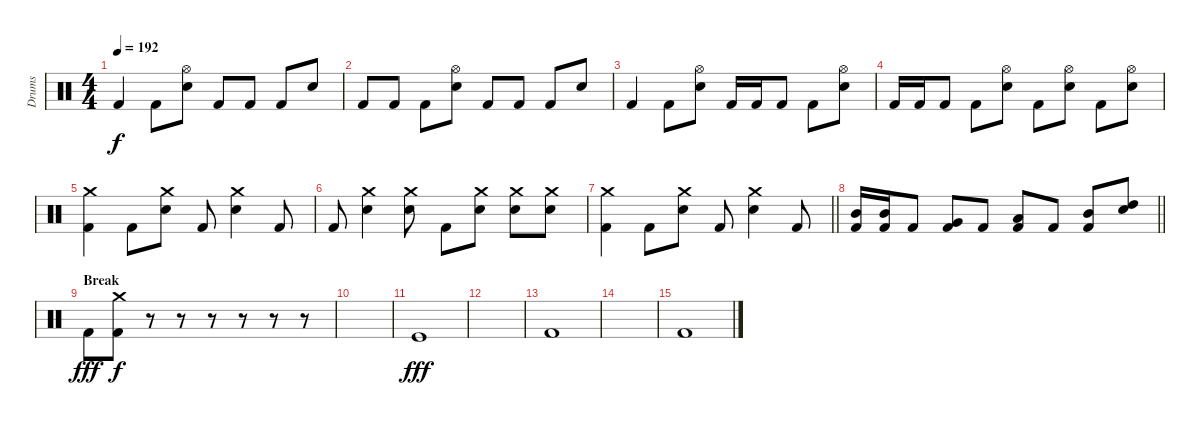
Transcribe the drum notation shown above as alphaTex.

\track ("Drums" "Drums") {instrument percussion}
\staff {score}
\articulation defaults
\ts (4 4)
\tempo 192
\clef neutral
\ks c "Kick (hit) 2".4{dy f} "Kick (hit) 2".8
("Electric Snare (hit)" "Hi-Hat (open)").8 "Kick (hit) 2".8 "Kick (hit) 2".8 "Kick (hit) 2".8 "Electric Snare (hit)".8 |
"Kick (hit) 2".8 "Kick (hit) 2".8 "Kick (hit) 2".8 ("Electric Snare (hit)" "Hi-Hat (open)").8 "Kick (hit) 2".8 "Kick (hit) 2".8 "Kick (hit) 2".8 "Electric Snare (hit)".8 |
"Kick (hit) 2".4 "Kick (hit) 2".8 ("Electric Snare (hit)" "Hi-Hat (open)").8 "Kick (hit) 2".16 "Kick (hit) 2".16 "Kick (hit) 2".8 "Kick (hit) 2".8 ("Electric Snare (hit)" "Hi-Hat (open)").8 |
"Kick (hit) 2".16 "Kick (hit) 2".16 "Kick (hit) 2".8 "Kick (hit) 2".8 ("Hi-Hat (open)" "Electric Snare (hit)").8 "Kick (hit) 2".8 ("Hi-Hat (open)" "Electric Snare (hit)").8 "Kick (hit) 2".8 ("Hi-Hat (open)" "Electric Snare (hit)").8 |
("Kick (hit) 2" "Crash medium (hit)").4 "Kick (hit) 2".8 ("Electric Snare (hit)" "Crash medium (hit)").8 "Kick (hit) 2".8 ("Electric Snare (hit)" "Crash medium (hit)").4 "Kick (hit) 2".8 |
"Kick (hit) 2".8 ("Electric Snare (hit)" "Crash medium (hit)").4 ("Electric Snare (hit)" "Crash medium (hit)").8 "Kick (hit) 2".8 ("Electric Snare (hit)" "Crash medium (hit)").8 ("Electric Snare (hit)" "Crash medium (hit)").8 ("Electric Snare (hit)" "Crash medium (hit)").8 |
\barLineRight lightlight
("Kick (hit) 2" "Crash medium (hit)").4 "Kick (hit) 2".8 ("Electric Snare (hit)" "Crash medium (hit)").8 "Kick (hit) 2".8 ("Electric Snare (hit)" "Crash medium (hit)").4 "Kick (hit) 2".8 |
\barLineRight lightlight
("Mid Tom (hit)" "Kick (hit) 2").16 ("Mid Tom (hit)" "Kick (hit) 2").16 "Kick (hit) 2".8 ("Very Low Tom (hit)" "Kick (hit) 2").8 "Kick (hit) 2".8 ("Low Floor Tom (hit)" "Kick (hit) 2").8 "Kick (hit) 2".8 ("Mid Tom (hit)" "Kick (hit) 2").8 ("High Tom (hit)" "Electric Snare (hit)").8 |
\section ("" "Break")
"Kick (hit) 2".8{dy fff} ("Crash medium (hit)" "Kick (hit) 2").8{dy f} r.8 r.8 r.8 r.8 r.8 r.8 |
|
"Kick (hit)".1{dy fff} |
|
"Kick (hit) 2".1 |
|
"Kick (hit) 2".1
